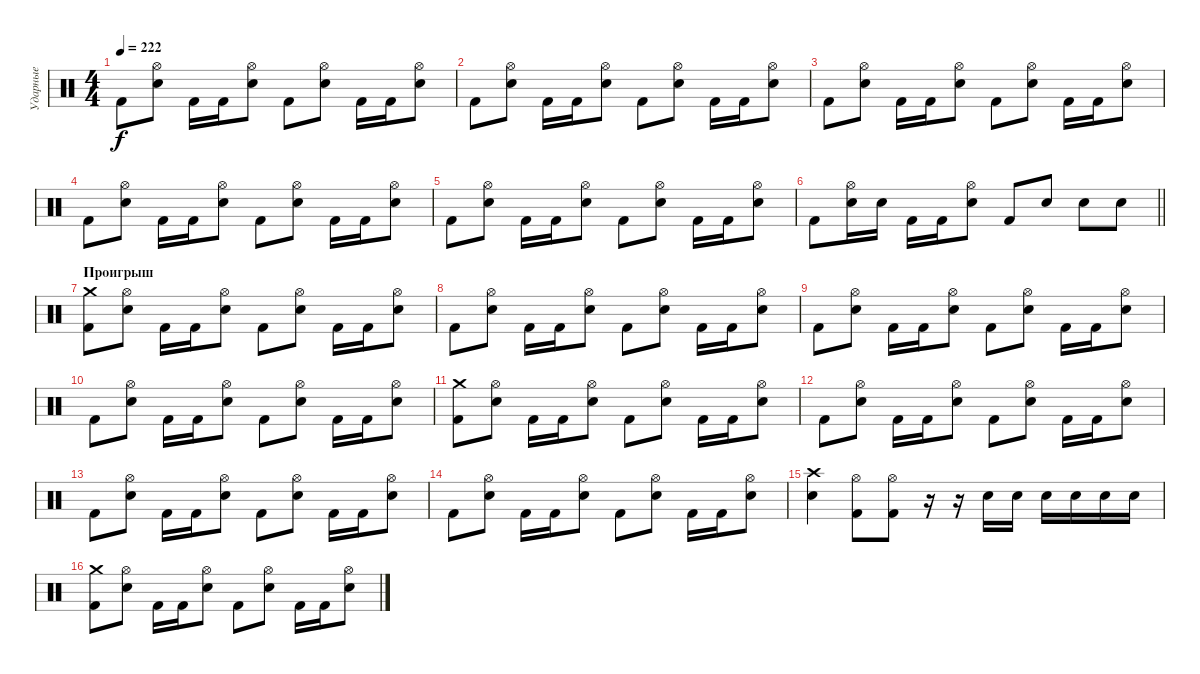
\track ("Ударные" "Ударные") {instrument percussion}
\staff {score}
\articulation defaults
\ts (4 4)
\tempo 222
\clef neutral
\ks c "Kick (hit) 2".8{dy f}
("Electric Snare (hit)" "Hi-Hat (open)").8 "Kick (hit) 2".16 "Kick (hit) 2".16 ("Electric Snare (hit)" "Hi-Hat (open)").8 "Kick (hit) 2".8 ("Electric Snare (hit)" "Hi-Hat (open)").8 "Kick (hit) 2".16 "Kick (hit) 2".16 ("Electric Snare (hit)" "Hi-Hat (open)").8 |
"Kick (hit) 2".8 ("Electric Snare (hit)" "Hi-Hat (open)").8 "Kick (hit) 2".16 "Kick (hit) 2".16 ("Electric Snare (hit)" "Hi-Hat (open)").8 "Kick (hit) 2".8 ("Electric Snare (hit)" "Hi-Hat (open)").8 "Kick (hit) 2".16 "Kick (hit) 2".16 ("Electric Snare (hit)" "Hi-Hat (open)").8 |
"Kick (hit) 2".8 ("Electric Snare (hit)" "Hi-Hat (open)").8 "Kick (hit) 2".16 "Kick (hit) 2".16 ("Electric Snare (hit)" "Hi-Hat (open)").8 "Kick (hit) 2".8 ("Electric Snare (hit)" "Hi-Hat (open)").8 "Kick (hit) 2".16 "Kick (hit) 2".16 ("Electric Snare (hit)" "Hi-Hat (open)").8 |
"Kick (hit) 2".8 ("Electric Snare (hit)" "Hi-Hat (open)").8 "Kick (hit) 2".16 "Kick (hit) 2".16 ("Electric Snare (hit)" "Hi-Hat (open)").8 "Kick (hit) 2".8 ("Electric Snare (hit)" "Hi-Hat (open)").8 "Kick (hit) 2".16 "Kick (hit) 2".16 ("Electric Snare (hit)" "Hi-Hat (open)").8 |
"Kick (hit) 2".8 ("Electric Snare (hit)" "Hi-Hat (open)").8 "Kick (hit) 2".16 "Kick (hit) 2".16 ("Electric Snare (hit)" "Hi-Hat (open)").8 "Kick (hit) 2".8 ("Electric Snare (hit)" "Hi-Hat (open)").8 "Kick (hit) 2".16 "Kick (hit) 2".16 ("Electric Snare (hit)" "Hi-Hat (open)").8 |
\barLineRight lightlight "Kick (hit) 2".8
("Electric Snare (hit)" "Hi-Hat (open)").16 "Electric Snare (hit)".16 "Kick (hit) 2".16 "Kick (hit) 2".16 ("Electric Snare (hit)" "Hi-Hat (open)").8 "Kick (hit) 2".8 "Electric Snare (hit)".8 "Electric Snare (hit)".8 "Electric Snare (hit)".8 |
\section ("" "Проигрыш")
("Kick (hit) 2" "Crash medium (hit)").8 ("Electric Snare (hit)" "Hi-Hat (open)").8 "Kick (hit) 2".16 "Kick (hit) 2".16 ("Electric Snare (hit)" "Hi-Hat (open)").8 "Kick (hit) 2".8 ("Electric Snare (hit)" "Hi-Hat (open)").8 "Kick (hit) 2".16 "Kick (hit) 2".16 ("Electric Snare (hit)" "Hi-Hat (open)").8 |
"Kick (hit) 2".8 ("Electric Snare (hit)" "Hi-Hat (open)").8 "Kick (hit) 2".16 "Kick (hit) 2".16 ("Electric Snare (hit)" "Hi-Hat (open)").8 "Kick (hit) 2".8 ("Electric Snare (hit)" "Hi-Hat (open)").8 "Kick (hit) 2".16 "Kick (hit) 2".16 ("Electric Snare (hit)" "Hi-Hat (open)").8 |
"Kick (hit) 2".8 ("Electric Snare (hit)" "Hi-Hat (open)").8 "Kick (hit) 2".16 "Kick (hit) 2".16 ("Electric Snare (hit)" "Hi-Hat (open)").8 "Kick (hit) 2".8 ("Electric Snare (hit)" "Hi-Hat (open)").8 "Kick (hit) 2".16 "Kick (hit) 2".16 ("Electric Snare (hit)" "Hi-Hat (open)").8 |
"Kick (hit) 2".8 ("Electric Snare (hit)" "Hi-Hat (open)").8 "Kick (hit) 2".16 "Kick (hit) 2".16 ("Electric Snare (hit)" "Hi-Hat (open)").8 "Kick (hit) 2".8 ("Electric Snare (hit)" "Hi-Hat (open)").8 "Kick (hit) 2".16 "Kick (hit) 2".16 ("Electric Snare (hit)" "Hi-Hat (open)").8 |
("Kick (hit) 2" "Crash medium (hit)").8 ("Electric Snare (hit)" "Hi-Hat (open)").8 "Kick (hit) 2".16 "Kick (hit) 2".16 ("Electric Snare (hit)" "Hi-Hat (open)").8 "Kick (hit) 2".8 ("Electric Snare (hit)" "Hi-Hat (open)").8 "Kick (hit) 2".16 "Kick (hit) 2".16 ("Electric Snare (hit)" "Hi-Hat (open)").8 |
"Kick (hit) 2".8 ("Electric Snare (hit)" "Hi-Hat (open)").8 "Kick (hit) 2".16 "Kick (hit) 2".16 ("Electric Snare (hit)" "Hi-Hat (open)").8 "Kick (hit) 2".8 ("Electric Snare (hit)" "Hi-Hat (open)").8 "Kick (hit) 2".16 "Kick (hit) 2".16 ("Electric Snare (hit)" "Hi-Hat (open)").8 |
"Kick (hit) 2".8 ("Electric Snare (hit)" "Hi-Hat (open)").8 "Kick (hit) 2".16 "Kick (hit) 2".16 ("Electric Snare (hit)" "Hi-Hat (open)").8 "Kick (hit) 2".8 ("Electric Snare (hit)" "Hi-Hat (open)").8 "Kick (hit) 2".16 "Kick (hit) 2".16 ("Electric Snare (hit)" "Hi-Hat (open)").8 |
"Kick (hit) 2".8 ("Electric Snare (hit)" "Hi-Hat (open)").8 "Kick (hit) 2".16 "Kick (hit) 2".16 ("Electric Snare (hit)" "Hi-Hat (open)").8 "Kick (hit) 2".8 ("Electric Snare (hit)" "Hi-Hat (open)").8 "Kick (hit) 2".16 "Kick (hit) 2".16 ("Electric Snare (hit)" "Hi-Hat (open)").8 |
("Crash high (hit)" "Electric Snare (hit)").4 ("Hi-Hat (open)" "Kick (hit) 2").8 ("Hi-Hat (open)" "Kick (hit) 2").8 r.16 r.16 "Electric Snare (hit)".16 "Electric Snare (hit)".16 "Electric Snare (hit)".16 "Electric Snare (hit)".16 "Electric Snare (hit)".16 "Electric Snare (hit)".16 |
("Kick (hit) 2" "Crash medium (hit)").8 ("Electric Snare (hit)" "Hi-Hat (open)").8 "Kick (hit) 2".16 "Kick (hit) 2".16 ("Electric Snare (hit)" "Hi-Hat (open)").8 "Kick (hit) 2".8 ("Electric Snare (hit)" "Hi-Hat (open)").8 "Kick (hit) 2".16 "Kick (hit) 2".16 ("Electric Snare (hit)" "Hi-Hat (open)").8
